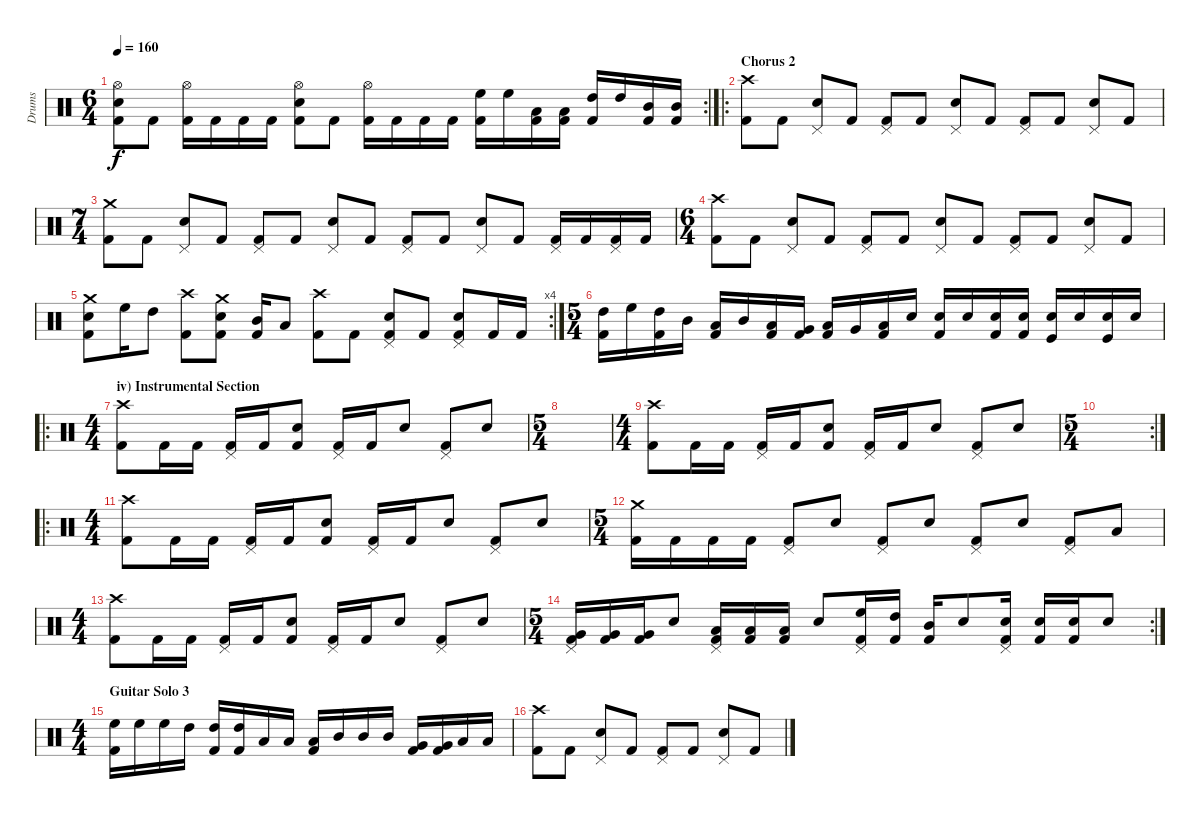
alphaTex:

\track ("Drums" "Drums") {instrument percussion}
\staff {score}
\articulation defaults
\rc 2
\ts (6 4)
\tempo 160
\clef neutral
\ks c
("Hi-Hat (open)" "Snare (hit) 2" "Kick (hit) 2").8{dy f} "Kick (hit) 2".8 ("Hi-Hat (open)" "Kick (hit) 2").16 "Kick (hit) 2".16 "Kick (hit) 2".16 "Kick (hit) 2".16 ("Hi-Hat (open)" "Snare (hit) 2" "Kick (hit) 2").8 "Kick (hit) 2".8 ("Hi-Hat (open)" "Kick (hit) 2").16 "Kick (hit) 2".16 "Kick (hit) 2".16 "Kick (hit) 2".16 ("High Floor Tom (hit)" "Kick (hit) 2").16 "High Floor Tom (hit)".16 ("Low Tom (hit)" "Kick (hit) 2").16 ("Low Tom (hit)" "Kick (hit) 2").16 ("High Tom (hit)" "Kick (hit) 2").16 "High Tom (hit)".16 ("Mid Tom (hit)" "Kick (hit) 2").16 ("Mid Tom (hit)" "Kick (hit) 2").16 |
\ro
\section ("" "Chorus 2")
("Crash high (hit)" "Kick (hit) 2").8 "Kick (hit) 2".8 ("Pedal Hi-Hat (hit)" "Snare (hit) 2").8 "Kick (hit) 2".8 ("Pedal Hi-Hat (hit)" "Kick (hit) 2").8 "Kick (hit) 2".8 ("Pedal Hi-Hat (hit)" "Snare (hit) 2").8 "Kick (hit) 2".8 ("Pedal Hi-Hat (hit)" "Kick (hit) 2").8 "Kick (hit) 2".8 ("Pedal Hi-Hat (hit)" "Snare (hit) 2").8 "Kick (hit) 2".8 |
\ts (7 4)
("Crash medium (hit)" "Kick (hit) 2").8 "Kick (hit) 2".8 ("Pedal Hi-Hat (hit)" "Snare (hit) 2").8 "Kick (hit) 2".8 ("Pedal Hi-Hat (hit)" "Kick (hit) 2").8 "Kick (hit) 2".8 ("Pedal Hi-Hat (hit)" "Snare (hit) 2").8 "Kick (hit) 2".8 ("Pedal Hi-Hat (hit)" "Kick (hit) 2").8 "Kick (hit) 2".8 ("Pedal Hi-Hat (hit)" "Snare (hit) 2").8 "Kick (hit) 2".8 ("Pedal Hi-Hat (hit)" "Kick (hit) 2").16 "Kick (hit) 2".16 ("Pedal Hi-Hat (hit)" "Kick (hit) 2").16 "Kick (hit) 2".16 |
\ts (6 4)
("Crash high (hit)" "Kick (hit) 2").8 "Kick (hit) 2".8 ("Pedal Hi-Hat (hit)" "Snare (hit) 2").8 "Kick (hit) 2".8 ("Pedal Hi-Hat (hit)" "Kick (hit) 2").8 "Kick (hit) 2".8 ("Pedal Hi-Hat (hit)" "Snare (hit) 2").8 "Kick (hit) 2".8 ("Pedal Hi-Hat (hit)" "Kick (hit) 2").8 "Kick (hit) 2".8 ("Pedal Hi-Hat (hit)" "Snare (hit) 2").8 "Kick (hit) 2".8 |
\rc 4
("Crash medium (hit)" "Snare (hit) 2" "Kick (hit) 2").8 "High Floor Tom (hit)".16 "High Tom (hit)".8 ("Crash high (hit)" "Kick (hit) 2").8 ("Crash medium (hit)" "Snare (hit) 2" "Kick (hit) 2").8 ("Mid Tom (hit)" "Kick (hit) 2").16 "Low Tom (hit)".8 ("Crash high (hit)" "Kick (hit) 2").8 "Kick (hit) 2".8 ("Pedal Hi-Hat (hit)" "Snare (hit) 2" "Kick (hit) 2").8 "Kick (hit) 2".8 ("Pedal Hi-Hat (hit)" "Snare (hit) 2" "Kick (hit) 2").8 "Kick (hit) 2".16 "Kick (hit) 2".16 |
\ts (5 4)
("High Tom (hit)" "Kick (hit) 2").16 "High Floor Tom (hit)".16 ("High Tom (hit)" "Kick (hit) 2").16 "Mid Tom (hit)".16 ("Low Tom (hit)" "Kick (hit) 2").16 "Mid Tom (hit)".16 ("Low Tom (hit)" "Kick (hit) 2").16 ("Very Low Tom (hit)" "Kick (hit) 2").16 ("Low Floor Tom (hit)" "Kick (hit) 2").16 "Very Low Tom (hit)".16 ("Low Floor Tom (hit)" "Kick (hit) 2").16 "Electric Snare (hit)".16 ("Snare (hit) 2" "Kick (hit) 2").16 "Snare (hit) 2".16 ("Snare (hit) 2" "Kick (hit) 2").16 ("Snare (hit) 2" "Kick (hit) 2").16 ("Snare (hit) 2" "Kick (hit)").16 "Snare (hit) 2".16 ("Snare (hit) 2" "Kick (hit)").16 "Snare (hit) 2".16 |
\ro
\ts (4 4)
\section ("" "iv) Instrumental Section")
("Crash high (hit)" "Kick (hit) 2").8 "Kick (hit) 2".16 "Kick (hit) 2".16 ("Pedal Hi-Hat (hit)" "Kick (hit) 2").16 "Kick (hit) 2".16 ("Snare (hit) 2" "Kick (hit) 2").8 ("Pedal Hi-Hat (hit)" "Kick (hit) 2").16 "Kick (hit) 2".16 "Snare (hit) 2".8 ("Pedal Hi-Hat (hit)" "Kick (hit) 2").8 "Snare (hit) 2".8 |
\ts (5 4)
|
\ts (4 4)
("Crash high (hit)" "Kick (hit) 2").8 "Kick (hit) 2".16 "Kick (hit) 2".16 ("Pedal Hi-Hat (hit)" "Kick (hit) 2").16 "Kick (hit) 2".16 ("Snare (hit) 2" "Kick (hit) 2").8 ("Pedal Hi-Hat (hit)" "Kick (hit) 2").16 "Kick (hit) 2".16 "Snare (hit) 2".8 ("Pedal Hi-Hat (hit)" "Kick (hit) 2").8 "Snare (hit) 2".8 |
\rc 2
\ts (5 4)
|
\ro
\ts (4 4)
("Crash high (hit)" "Kick (hit) 2").8 "Kick (hit) 2".16 "Kick (hit) 2".16 ("Pedal Hi-Hat (hit)" "Kick (hit) 2").16 "Kick (hit) 2".16 ("Electric Snare (hit)" "Kick (hit) 2").8 ("Pedal Hi-Hat (hit)" "Kick (hit) 2").16 "Kick (hit) 2".16 "Electric Snare (hit)".8 ("Pedal Hi-Hat (hit)" "Kick (hit) 2").8 "Electric Snare (hit)".8 |
\ts (5 4)
("Crash medium (hit)" "Kick (hit) 2").16 "Kick (hit) 2".16 "Kick (hit) 2".16 "Kick (hit) 2".16 ("Pedal Hi-Hat (hit)" "Kick (hit) 2").8 "Electric Snare (hit)".8 ("Pedal Hi-Hat (hit)" "Kick (hit) 2").8 "Electric Snare (hit)".8 ("Pedal Hi-Hat (hit)" "Kick (hit) 2").8 "Electric Snare (hit)".8 ("Pedal Hi-Hat (hit)" "Kick (hit) 2").8 "Low Floor Tom (hit)".8 |
\ts (4 4)
("Crash high (hit)" "Kick (hit) 2").8 "Kick (hit) 2".16 "Kick (hit) 2".16 ("Pedal Hi-Hat (hit)" "Kick (hit) 2").16 "Kick (hit) 2".16 ("Snare (hit) 2" "Kick (hit) 2").8 ("Pedal Hi-Hat (hit)" "Kick (hit) 2").16 "Kick (hit) 2".16 "Snare (hit) 2".8 ("Pedal Hi-Hat (hit)" "Kick (hit) 2").8 "Snare (hit) 2".8 |
\rc 2
\ts (5 4)
("Pedal Hi-Hat (hit)" "Very Low Tom (hit)" "Kick (hit) 2").16 ("Very Low Tom (hit)" "Kick (hit) 2").16 ("Very Low Tom (hit)" "Kick (hit) 2").16 "Electric Snare (hit)".8 ("Pedal Hi-Hat (hit)" "Low Floor Tom (hit)" "Kick (hit) 2").16 ("Low Floor Tom (hit)" "Kick (hit) 2").16 ("Low Floor Tom (hit)" "Kick (hit) 2").16 "Electric Snare (hit)".8 ("Pedal Hi-Hat (hit)" "High Floor Tom (hit)" "Kick (hit) 2").16 ("High Tom (hit)" "Kick (hit) 2").16 ("Mid Tom (hit)" "Kick (hit) 2").16 "Electric Snare (hit)".8 ("Pedal Hi-Hat (hit)" "Snare (hit) 2" "Kick (hit) 2").16 ("Snare (hit) 2" "Kick (hit) 2").16 ("Snare (hit) 2" "Kick (hit) 2").16 "Electric Snare (hit)".8 |
\ts (4 4)
\section ("" "Guitar Solo 3")
("High Floor Tom (hit)" "Kick (hit) 2").16 "High Floor Tom (hit)".16 "High Floor Tom (hit)".16 "High Tom (hit)".16 ("High Tom (hit)" "Kick (hit) 2").16 ("High Tom (hit)" "Kick (hit) 2").16 "Low Tom (hit)".16 "Low Tom (hit)".16 ("Low Tom (hit)" "Kick (hit) 2").16 "Mid Tom (hit)".16 "Mid Tom (hit)".16 "Mid Tom (hit)".16 ("Very Low Tom (hit)" "Kick (hit) 2").16 ("Very Low Tom (hit)" "Kick (hit) 2").16 "Low Floor Tom (hit)".16 "Low Floor Tom (hit)".16 |
("Crash high (hit)" "Kick (hit) 2").8 "Kick (hit) 2".8 ("Pedal Hi-Hat (hit)" "Electric Snare (hit)").8 "Kick (hit) 2".8 ("Pedal Hi-Hat (hit)" "Kick (hit) 2").8 "Kick (hit) 2".8 ("Pedal Hi-Hat (hit)" "Electric Snare (hit)").8 "Kick (hit) 2".8
